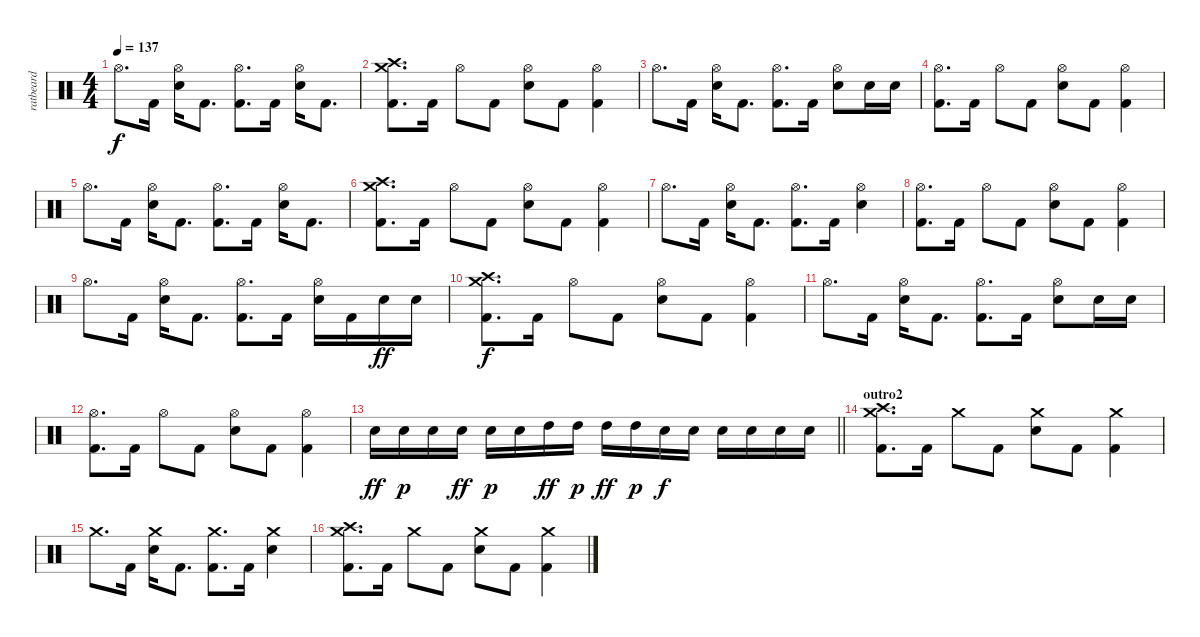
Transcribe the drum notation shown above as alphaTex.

\track ("ratbeard" "ratbeard") {instrument percussion}
\staff {score}
\articulation defaults
\ts (4 4)
\tempo 137
\clef neutral
\ks c "Hi-Hat (open)".8{d dy f} "Kick (hit) 2".16
("Hi-Hat (open)" "Electric Snare (hit)").16 "Kick (hit) 2".8{d} ("Hi-Hat (open)" "Kick (hit) 2").8{d} "Kick (hit) 2".16 ("Hi-Hat (open)" "Electric Snare (hit)").16 "Kick (hit) 2".8{d} |
("Crash high (hit)" "Crash medium (hit)" "Kick (hit) 2").8{d} "Kick (hit) 2".16 "Hi-Hat (open)".8 "Kick (hit) 2".8 ("Hi-Hat (open)" "Electric Snare (hit)").8 "Kick (hit) 2".8 ("Hi-Hat (open)" "Kick (hit) 2").4 |
"Hi-Hat (open)".8{d} "Kick (hit) 2".16 ("Hi-Hat (open)" "Electric Snare (hit)").16 "Kick (hit) 2".8{d} ("Hi-Hat (open)" "Kick (hit) 2").8{d} "Kick (hit) 2".16 ("Hi-Hat (open)" "Electric Snare (hit)").8 "Electric Snare (hit)".16 "Electric Snare (hit)".16 |
("Hi-Hat (open)" "Kick (hit) 2").8{d} "Kick (hit) 2".16 "Hi-Hat (open)".8 "Kick (hit) 2".8 ("Hi-Hat (open)" "Electric Snare (hit)").8 "Kick (hit) 2".8 ("Hi-Hat (open)" "Kick (hit) 2").4 |
"Hi-Hat (open)".8{d} "Kick (hit) 2".16 ("Hi-Hat (open)" "Electric Snare (hit)").16 "Kick (hit) 2".8{d} ("Hi-Hat (open)" "Kick (hit) 2").8{d} "Kick (hit) 2".16 ("Hi-Hat (open)" "Electric Snare (hit)").16 "Kick (hit) 2".8{d} |
("Crash high (hit)" "Crash medium (hit)" "Kick (hit) 2").8{d} "Kick (hit) 2".16 "Hi-Hat (open)".8 "Kick (hit) 2".8 ("Hi-Hat (open)" "Electric Snare (hit)").8 "Kick (hit) 2".8 ("Hi-Hat (open)" "Kick (hit) 2").4 |
"Hi-Hat (open)".8{d} "Kick (hit) 2".16 ("Hi-Hat (open)" "Electric Snare (hit)").16 "Kick (hit) 2".8{d} ("Hi-Hat (open)" "Kick (hit) 2").8{d} "Kick (hit) 2".16 ("Hi-Hat (open)" "Electric Snare (hit)").4 |
("Hi-Hat (open)" "Kick (hit) 2").8{d} "Kick (hit) 2".16 "Hi-Hat (open)".8 "Kick (hit) 2".8 ("Hi-Hat (open)" "Electric Snare (hit)").8 "Kick (hit) 2".8 ("Hi-Hat (open)" "Kick (hit) 2").4 |
"Hi-Hat (open)".8{d} "Kick (hit) 2".16 ("Hi-Hat (open)" "Electric Snare (hit)").16 "Kick (hit) 2".8{d} ("Hi-Hat (open)" "Kick (hit) 2").8{d} "Kick (hit) 2".16 ("Hi-Hat (open)" "Electric Snare (hit)").16 "Kick (hit) 2".16 "Electric Snare (hit)".16{dy ff} "Electric Snare (hit)".16 |
("Crash high (hit)" "Crash medium (hit)" "Kick (hit) 2").8{d dy f} "Kick (hit) 2".16 "Hi-Hat (open)".8 "Kick (hit) 2".8 ("Hi-Hat (open)" "Electric Snare (hit)").8 "Kick (hit) 2".8 ("Hi-Hat (open)" "Kick (hit) 2").4 |
"Hi-Hat (open)".8{d} "Kick (hit) 2".16 ("Hi-Hat (open)" "Electric Snare (hit)").16 "Kick (hit) 2".8{d} ("Hi-Hat (open)" "Kick (hit) 2").8{d} "Kick (hit) 2".16 ("Hi-Hat (open)" "Electric Snare (hit)").8 "Electric Snare (hit)".16 "Electric Snare (hit)".16 |
("Hi-Hat (open)" "Kick (hit) 2").8{d} "Kick (hit) 2".16 "Hi-Hat (open)".8 "Kick (hit) 2".8 ("Hi-Hat (open)" "Electric Snare (hit)").8 "Kick (hit) 2".8 ("Hi-Hat (open)" "Kick (hit) 2").4 |
\barLineRight lightlight "Electric Snare (hit)".16{dy ff} "Electric Snare (hit)".16{dy p} "Electric Snare (hit)".16 "Electric Snare (hit)".16{dy ff} "Electric Snare (hit)".16{dy p} "Electric Snare (hit)".16 "High Tom (hit)".16{dy ff} "High Tom (hit)".16{dy p} "High Tom (hit)".16{dy ff} "High Tom (hit)".16{dy p} "Electric Snare (hit)".16{dy f} "Electric Snare (hit)".16 "Electric Snare (hit)".16 "Electric Snare (hit)".16 "Electric Snare (hit)".16 "Electric Snare (hit)".16
|
\section ("" "outro2")
("Crash high (hit)" "Crash medium (hit)" "Kick (hit) 2").8{d} "Kick (hit) 2".16 "Crash medium (hit)".8 "Kick (hit) 2".8 ("Crash medium (hit)" "Electric Snare (hit)").8 "Kick (hit) 2".8 ("Crash medium (hit)" "Kick (hit) 2").4 |
"Crash medium (hit)".8{d} "Kick (hit) 2".16 ("Crash medium (hit)" "Electric Snare (hit)").16 "Kick (hit) 2".8{d} ("Crash medium (hit)" "Kick (hit) 2").8{d} "Kick (hit) 2".16 ("Crash medium (hit)" "Electric Snare (hit)").4 |
("Crash high (hit)" "Crash medium (hit)" "Kick (hit) 2").8{d} "Kick (hit) 2".16 "Crash medium (hit)".8 "Kick (hit) 2".8 ("Crash medium (hit)" "Electric Snare (hit)").8 "Kick (hit) 2".8 ("Crash medium (hit)" "Kick (hit) 2").4
